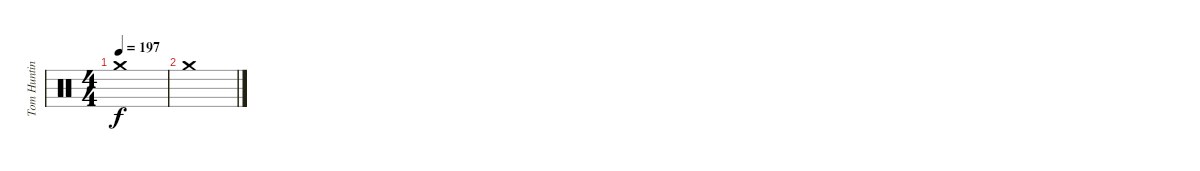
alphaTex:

\track ("Tom Hunting" "Tom Huntin") {instrument percussion}
\staff {score}
\articulation defaults
\ts (4 4)
\tempo 197
\clef neutral
\ks c "Crash medium (hit)".1{dy f}
|
"Crash medium (hit)".1
